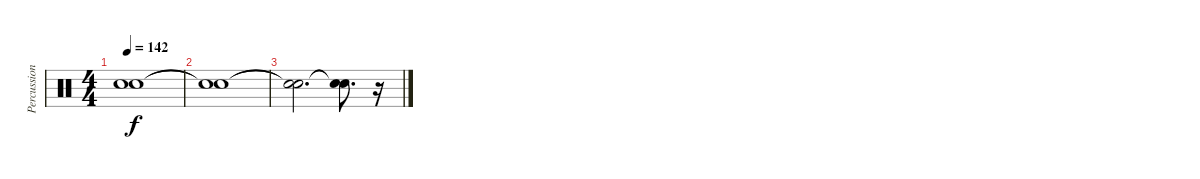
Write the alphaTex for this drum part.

\track ("Percussion" "Percussion") {instrument percussion}
\staff {score}
\articulation defaults
\ts (4 4)
\tempo 142
\clef neutral
\ks c
("Snare (hit)"{t} "Snare (hit)"{t}).1{dy f} |
("Snare (hit)"{t} "Snare (hit)"{t}).1 |
("Snare (hit)"{t} "Snare (hit)"{t}).2{d} ("Snare (hit)"{t} "Snare (hit)"{t}).8{d} r.16
